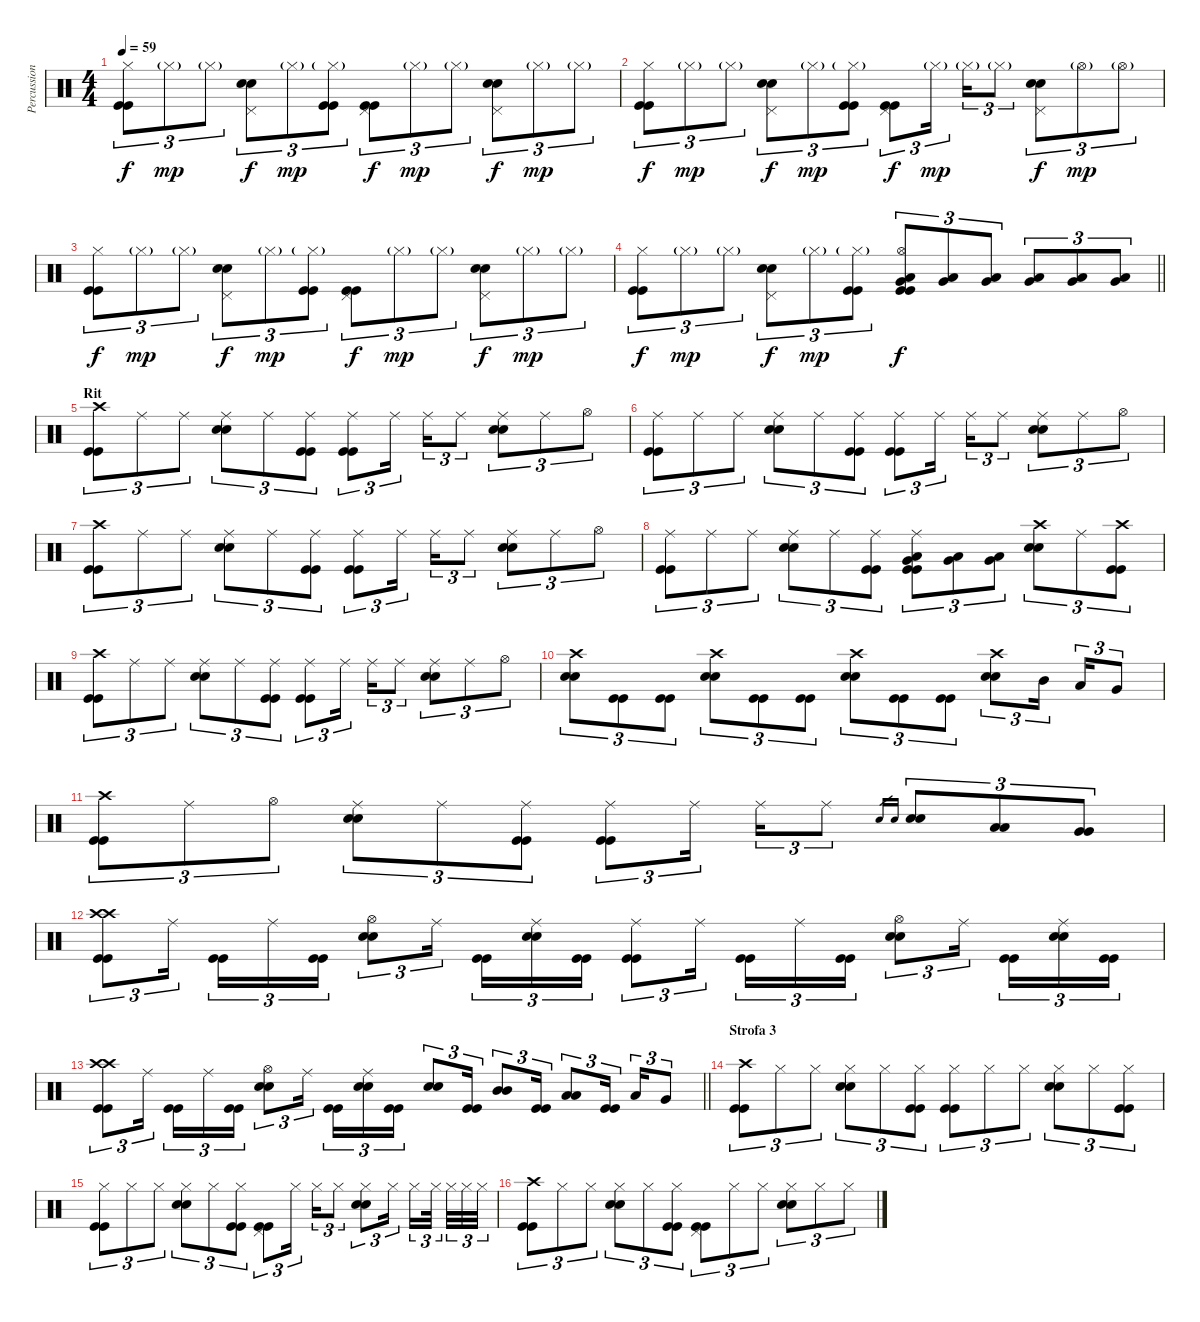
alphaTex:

\track ("Percussioni" "Percussion") {instrument percussion}
\staff {score}
\articulation defaults
\ts (4 4)
\tempo 59
\clef neutral
\ks c
("Hi-Hat (closed)" "Kick (hit)" "Kick (hit)").8{tu (3 2) dy f} "Hi-Hat (closed)"{g}.8{tu (3 2) dy mp} "Hi-Hat (closed)"{g}.8{tu (3 2)} ("Pedal Hi-Hat (hit)" "Snare (hit) 2" "Snare (hit) 2").8{tu (3 2) dy f} "Hi-Hat (closed)"{g}.8{tu (3 2) dy mp} ("Hi-Hat (closed)"{g} "Kick (hit)" "Kick (hit)").8{tu (3 2)} ("Pedal Hi-Hat (hit)" "Kick (hit)" "Kick (hit)").8{tu (3 2) dy f} "Hi-Hat (closed)"{g}.8{tu (3 2) dy mp} "Hi-Hat (closed)"{g}.8{tu (3 2)} ("Pedal Hi-Hat (hit)" "Snare (hit) 2" "Snare (hit) 2").8{tu (3 2) dy f} "Hi-Hat (closed)"{g}.8{tu (3 2) dy mp} "Hi-Hat (closed)"{g}.8{tu (3 2)} |
("Hi-Hat (closed)" "Kick (hit)" "Kick (hit)").8{tu (3 2) dy f} "Hi-Hat (closed)"{g}.8{tu (3 2) dy mp} "Hi-Hat (closed)"{g}.8{tu (3 2)} ("Pedal Hi-Hat (hit)" "Snare (hit) 2" "Snare (hit) 2").8{tu (3 2) dy f} "Hi-Hat (closed)"{g}.8{tu (3 2) dy mp} ("Hi-Hat (closed)"{g} "Kick (hit)" "Kick (hit)").8{tu (3 2)} ("Pedal Hi-Hat (hit)" "Kick (hit)" "Kick (hit)").8{tu (3 2) dy f} "Hi-Hat (closed)"{g}.16{tu (3 2) dy mp beam splitsecondary} "Hi-Hat (closed)"{g}.16{tu (3 2)} "Hi-Hat (closed)"{g}.8{tu (3 2)} ("Pedal Hi-Hat (hit)" "Snare (hit) 2" "Snare (hit) 2").8{tu (3 2) dy f} "Hi-Hat (open)"{g}.8{tu (3 2) dy mp} "Hi-Hat (open)"{g}.8{tu (3 2)} |
("Hi-Hat (closed)" "Kick (hit)" "Kick (hit)").8{tu (3 2) dy f} "Hi-Hat (closed)"{g}.8{tu (3 2) dy mp} "Hi-Hat (closed)"{g}.8{tu (3 2)} ("Pedal Hi-Hat (hit)" "Snare (hit) 2" "Snare (hit) 2").8{tu (3 2) dy f} "Hi-Hat (closed)"{g}.8{tu (3 2) dy mp} ("Hi-Hat (closed)"{g} "Kick (hit)" "Kick (hit)").8{tu (3 2)} ("Pedal Hi-Hat (hit)" "Kick (hit)" "Kick (hit)").8{tu (3 2) dy f} "Hi-Hat (closed)"{g}.8{tu (3 2) dy mp} "Hi-Hat (closed)"{g}.8{tu (3 2)} ("Pedal Hi-Hat (hit)" "Snare (hit) 2" "Snare (hit) 2").8{tu (3 2) dy f} "Hi-Hat (closed)"{g}.8{tu (3 2) dy mp} "Hi-Hat (closed)"{g}.8{tu (3 2)} |
\barLineRight lightlight
("Hi-Hat (closed)" "Kick (hit)" "Kick (hit)").8{tu (3 2) dy f} "Hi-Hat (closed)"{g}.8{tu (3 2) dy mp} "Hi-Hat (closed)"{g}.8{tu (3 2)} ("Pedal Hi-Hat (hit)" "Snare (hit) 2" "Snare (hit) 2").8{tu (3 2) dy f} "Hi-Hat (closed)"{g}.8{tu (3 2) dy mp} ("Hi-Hat (closed)"{g} "Kick (hit)" "Kick (hit)").8{tu (3 2)} ("Hi-Hat (open)" "Low Tom (hit)" "Very Low Tom (hit)" "Kick (hit)" "Kick (hit)").8{tu (3 2) dy f volume 6} ("Low Tom (hit)" "Very Low Tom (hit)").8{tu (3 2) volume 9} ("Low Tom (hit)" "Very Low Tom (hit)").8{tu (3 2) volume 11} ("Low Tom (hit)" "Very Low Tom (hit)").8{tu (3 2)} ("Low Tom (hit)" "Very Low Tom (hit)").8{tu (3 2)} ("Low Tom (hit)" "Very Low Tom (hit)").8{tu (3 2)} |
\section ("" "Rit")
("Crash high (hit)" "Kick (hit)" "Kick (hit)").8{tu (3 2)} "Ride (middle)".8{tu (3 2)} "Ride (middle)".8{tu (3 2)} ("Ride (middle)" "Snare (hit) 2" "Snare (hit) 2").8{tu (3 2)} "Ride (middle)".8{tu (3 2)} ("Ride (middle)" "Kick (hit)" "Kick (hit)").8{tu (3 2)} ("Ride (middle)" "Kick (hit)" "Kick (hit)").8{tu (3 2)} "Ride (middle)".16{tu (3 2) beam splitsecondary} "Ride (middle)".16{tu (3 2)} "Ride (middle)".8{tu (3 2)} ("Ride (middle)" "Snare (hit) 2" "Snare (hit) 2").8{tu (3 2)} "Ride (middle)".8{tu (3 2)} "Hi-Hat (open)".8{tu (3 2)} |
("Ride (middle)" "Kick (hit)" "Kick (hit)").8{tu (3 2)} "Ride (middle)".8{tu (3 2)} "Ride (middle)".8{tu (3 2)} ("Ride (middle)" "Snare (hit) 2" "Snare (hit) 2").8{tu (3 2)} "Ride (middle)".8{tu (3 2)} ("Ride (middle)" "Kick (hit)" "Kick (hit)").8{tu (3 2)} ("Ride (middle)" "Kick (hit)" "Kick (hit)").8{tu (3 2)} "Ride (middle)".16{tu (3 2) beam splitsecondary} "Ride (middle)".16{tu (3 2)} "Ride (middle)".8{tu (3 2)} ("Ride (middle)" "Snare (hit) 2" "Snare (hit) 2").8{tu (3 2)} "Ride (middle)".8{tu (3 2)} "Hi-Hat (open)".8{tu (3 2)} |
("Crash high (hit)" "Kick (hit)" "Kick (hit)").8{tu (3 2)} "Ride (middle)".8{tu (3 2)} "Ride (middle)".8{tu (3 2)} ("Ride (middle)" "Snare (hit) 2" "Snare (hit) 2").8{tu (3 2)} "Ride (middle)".8{tu (3 2)} ("Ride (middle)" "Kick (hit)" "Kick (hit)").8{tu (3 2)} ("Ride (middle)" "Kick (hit)" "Kick (hit)").8{tu (3 2)} "Ride (middle)".16{tu (3 2) beam splitsecondary} "Ride (middle)".16{tu (3 2)} "Ride (middle)".8{tu (3 2)} ("Ride (middle)" "Snare (hit) 2" "Snare (hit) 2").8{tu (3 2)} "Ride (middle)".8{tu (3 2)} "Hi-Hat (open)".8{tu (3 2)} |
("Ride (middle)" "Kick (hit)" "Kick (hit)").8{tu (3 2)} "Ride (middle)".8{tu (3 2)} "Ride (middle)".8{tu (3 2)} ("Ride (middle)" "Snare (hit) 2" "Snare (hit) 2").8{tu (3 2)} "Ride (middle)".8{tu (3 2)} ("Ride (middle)" "Kick (hit)" "Kick (hit)").8{tu (3 2)} ("Ride (middle)" "Low Tom (hit)" "Very Low Tom (hit)" "Kick (hit)" "Kick (hit)").8{tu (3 2)} ("Low Tom (hit)" "Very Low Tom (hit)").8{tu (3 2)} ("Low Tom (hit)" "Very Low Tom (hit)").8{tu (3 2)} ("Crash high (hit)" "Snare (hit) 2" "Snare (hit) 2").8{tu (3 2)} "Ride (middle)".8{tu (3 2)} ("Crash high (hit)" "Kick (hit)" "Kick (hit)").8{tu (3 2)} |
("Crash high (hit)" "Kick (hit)" "Kick (hit)").8{tu (3 2)} "Ride (middle)".8{tu (3 2)} "Ride (middle)".8{tu (3 2)} ("Ride (middle)" "Snare (hit) 2" "Snare (hit) 2").8{tu (3 2)} "Ride (middle)".8{tu (3 2)} ("Ride (middle)" "Kick (hit)" "Kick (hit)").8{tu (3 2)} ("Ride (middle)" "Kick (hit)" "Kick (hit)").8{tu (3 2)} "Ride (middle)".16{tu (3 2) beam splitsecondary} "Ride (middle)".16{tu (3 2)} "Ride (middle)".8{tu (3 2)} ("Ride (middle)" "Snare (hit) 2" "Snare (hit) 2").8{tu (3 2)} "Ride (middle)".8{tu (3 2)} "Hi-Hat (open)".8{tu (3 2)} |
("Crash high (hit)" "Snare (hit) 2" "Snare (hit) 2").8{tu (3 2)} ("Kick (hit)" "Kick (hit)").8{tu (3 2)} ("Kick (hit)" "Kick (hit)").8{tu (3 2)} ("Crash high (hit)" "Snare (hit) 2" "Snare (hit) 2").8{tu (3 2)} ("Kick (hit)" "Kick (hit)").8{tu (3 2)} ("Kick (hit)" "Kick (hit)").8{tu (3 2)} ("Crash high (hit)" "Snare (hit) 2" "Snare (hit) 2").8{tu (3 2)} ("Kick (hit)" "Kick (hit)").8{tu (3 2)} ("Kick (hit)" "Kick (hit)").8{tu (3 2)} ("Crash high (hit)" "Snare (hit) 2" "Snare (hit) 2").8{tu (3 2)} "Mid Tom (hit)".16{tu (3 2) beam splitsecondary} "Low Tom (hit)".16{tu (3 2)} "Very Low Tom (hit)".8{tu (3 2)} |
("Crash high (hit)" "Kick (hit)" "Kick (hit)").8{tu (3 2)} "Ride (middle)".8{tu (3 2)} "Hi-Hat (open)".8{tu (3 2)} ("Ride (middle)" "Snare (hit) 2" "Snare (hit) 2").8{tu (3 2)} "Ride (middle)".8{tu (3 2)} ("Ride (middle)" "Kick (hit)" "Kick (hit)").8{tu (3 2)} ("Ride (middle)" "Kick (hit)" "Kick (hit)").8{tu (3 2)} "Ride (middle)".16{tu (3 2) beam splitsecondary} "Ride (middle)".16{tu (3 2)} "Ride (middle)".8{tu (3 2)} "Snare (hit) 2".16{gr} "Snare (hit) 2".16{gr} ("Snare (hit) 2" "Snare (hit) 2").8{tu (3 2)} ("Low Tom (hit)" "Low Tom (hit)").8{tu (3 2)} ("Very Low Tom (hit)" "Very Low Tom (hit)").8{tu (3 2)} |
("Crash high (hit)" "Crash high (hit)" "Kick (hit)" "Kick (hit)").8{tu (3 2)} "Ride (middle)".16{tu (3 2) beam splitsecondary} ("Kick (hit)" "Kick (hit)").16{tu (3 2)} "Ride (middle)".16{tu (3 2)} ("Kick (hit)" "Kick (hit)").16{tu (3 2)} ("Hi-Hat (open)" "Snare (hit) 2" "Snare (hit) 2").8{tu (3 2)} "Ride (middle)".16{tu (3 2) beam splitsecondary} ("Kick (hit)" "Kick (hit)").16{tu (3 2)} ("Ride (middle)" "Snare (hit) 2" "Snare (hit) 2").16{tu (3 2)} ("Kick (hit)" "Kick (hit)").16{tu (3 2)} ("Ride (middle)" "Kick (hit)" "Kick (hit)").8{tu (3 2)} "Ride (middle)".16{tu (3 2) beam splitsecondary} ("Kick (hit)" "Kick (hit)").16{tu (3 2)} "Ride (middle)".16{tu (3 2)} ("Kick (hit)" "Kick (hit)").16{tu (3 2)} ("Hi-Hat (open)" "Snare (hit) 2" "Snare (hit) 2").8{tu (3 2)} "Ride (middle)".16{tu (3 2) beam splitsecondary} ("Kick (hit)" "Kick (hit)").16{tu (3 2)} ("Ride (middle)" "Snare (hit) 2" "Snare (hit) 2").16{tu (3 2)} ("Kick (hit)" "Kick (hit)").16{tu (3 2)} |
\barLineRight lightlight
("Crash high (hit)" "Crash high (hit)" "Kick (hit)" "Kick (hit)").8{tu (3 2)} "Ride (middle)".16{tu (3 2) beam splitsecondary} ("Kick (hit)" "Kick (hit)").16{tu (3 2)} "Ride (middle)".16{tu (3 2)} ("Kick (hit)" "Kick (hit)").16{tu (3 2)} ("Hi-Hat (open)" "Snare (hit) 2" "Snare (hit) 2").8{tu (3 2)} "Ride (middle)".16{tu (3 2) beam splitsecondary} ("Kick (hit)" "Kick (hit)").16{tu (3 2)} ("Ride (middle)" "Snare (hit) 2" "Snare (hit) 2").16{tu (3 2)} ("Kick (hit)" "Kick (hit)").16{tu (3 2)} ("Snare (hit) 2" "Snare (hit) 2").8{tu (3 2)} ("Kick (hit)" "Kick (hit)").16{tu (3 2)} ("Mid Tom (hit)" "Mid Tom (hit)").8{tu (3 2)} ("Kick (hit)" "Kick (hit)").16{tu (3 2)} ("Low Tom (hit)" "Low Tom (hit)").8{tu (3 2)} ("Kick (hit)" "Kick (hit)").16{tu (3 2) beam splitsecondary} "Low Tom (hit)".16{tu (3 2)} "Very Low Tom (hit)".8{tu (3 2)} |
\section ("" "Strofa 3")
("Crash high (hit)" "Kick (hit)" "Kick (hit)").8{tu (3 2)} "Hi-Hat (closed)".8{tu (3 2)} "Hi-Hat (closed)".8{tu (3 2)} ("Hi-Hat (closed)" "Snare (hit) 2" "Snare (hit) 2").8{tu (3 2)} "Hi-Hat (closed)".8{tu (3 2)} ("Hi-Hat (closed)" "Kick (hit)" "Kick (hit)").8{tu (3 2)} ("Hi-Hat (closed)" "Kick (hit)" "Kick (hit)").8{tu (3 2)} "Hi-Hat (closed)".8{tu (3 2)} "Hi-Hat (closed)".8{tu (3 2)} ("Hi-Hat (closed)" "Snare (hit) 2" "Snare (hit) 2").8{tu (3 2)} "Hi-Hat (closed)".8{tu (3 2)} ("Hi-Hat (closed)" "Kick (hit)" "Kick (hit)").8{tu (3 2)} |
("Hi-Hat (closed)" "Kick (hit)" "Kick (hit)").8{tu (3 2)} "Hi-Hat (closed)".8{tu (3 2)} "Hi-Hat (closed)".8{tu (3 2)} ("Hi-Hat (closed)" "Snare (hit) 2" "Snare (hit) 2").8{tu (3 2)} "Hi-Hat (closed)".8{tu (3 2)} ("Hi-Hat (closed)" "Kick (hit)" "Kick (hit)").8{tu (3 2)} ("Pedal Hi-Hat (hit)" "Kick (hit)" "Kick (hit)").8{tu (3 2)} "Hi-Hat (closed)".16{tu (3 2) beam splitsecondary} "Hi-Hat (closed)".16{tu (3 2)} "Hi-Hat (closed)".8{tu (3 2)} ("Hi-Hat (closed)" "Snare (hit) 2" "Snare (hit) 2").8{tu (3 2)} "Hi-Hat (closed)".16{tu (3 2) beam splitsecondary} "Hi-Hat (closed)".16{tu (3 2)} "Hi-Hat (closed)".32{tu (3 2) beam splitsecondary} "Hi-Hat (closed)".32{tu (3 2)} "Hi-Hat (closed)".32{tu (3 2)} "Hi-Hat (closed)".32{tu (3 2)} |
("Crash high (hit)" "Kick (hit)" "Kick (hit)").8{tu (3 2)} "Hi-Hat (closed)".8{tu (3 2)} "Hi-Hat (closed)".8{tu (3 2)} ("Hi-Hat (closed)" "Snare (hit) 2" "Snare (hit) 2").8{tu (3 2)} "Hi-Hat (closed)".8{tu (3 2)} ("Hi-Hat (closed)" "Kick (hit)" "Kick (hit)").8{tu (3 2)} ("Pedal Hi-Hat (hit)" "Kick (hit)" "Kick (hit)").8{tu (3 2)} "Hi-Hat (closed)".8{tu (3 2)} "Hi-Hat (closed)".8{tu (3 2)} ("Hi-Hat (closed)" "Snare (hit) 2" "Snare (hit) 2").8{tu (3 2)} "Hi-Hat (closed)".8{tu (3 2)} "Hi-Hat (closed)".8{tu (3 2)}
